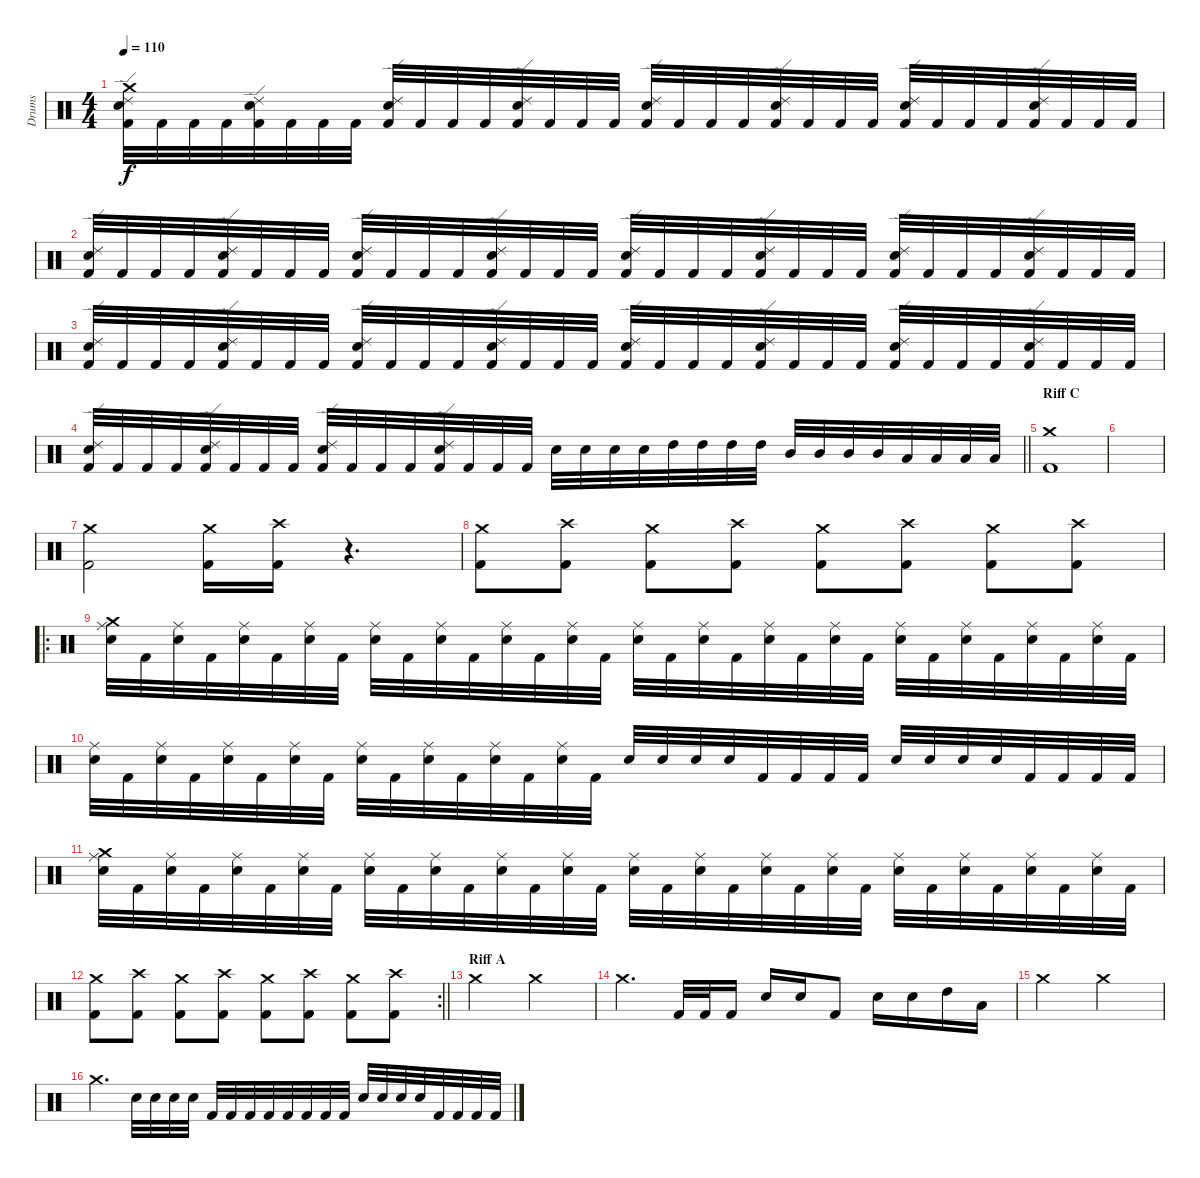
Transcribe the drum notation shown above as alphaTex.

\track ("Drums" "Drums") {instrument percussion}
\staff {score}
\articulation defaults
\ts (4 4)
\tempo 110
\clef neutral
\ks c
("Crash medium (hit)" "Ride (edge) 2" "Electric Snare (hit)" "Kick (hit) 2").32{dy f} "Kick (hit) 2".32 "Kick (hit) 2".32 "Kick (hit) 2".32 ("Ride (edge) 2" "Electric Snare (hit)" "Kick (hit) 2").32 "Kick (hit) 2".32 "Kick (hit) 2".32 "Kick (hit) 2".32 ("Ride (edge) 2" "Electric Snare (hit)" "Kick (hit) 2").32 "Kick (hit) 2".32 "Kick (hit) 2".32 "Kick (hit) 2".32 ("Ride (edge) 2" "Electric Snare (hit)" "Kick (hit) 2").32 "Kick (hit) 2".32 "Kick (hit) 2".32 "Kick (hit) 2".32 ("Ride (edge) 2" "Electric Snare (hit)" "Kick (hit) 2").32 "Kick (hit) 2".32 "Kick (hit) 2".32 "Kick (hit) 2".32 ("Ride (edge) 2" "Electric Snare (hit)" "Kick (hit) 2").32 "Kick (hit) 2".32 "Kick (hit) 2".32 "Kick (hit) 2".32 ("Ride (edge) 2" "Electric Snare (hit)" "Kick (hit) 2").32 "Kick (hit) 2".32 "Kick (hit) 2".32 "Kick (hit) 2".32 ("Ride (edge) 2" "Electric Snare (hit)" "Kick (hit) 2").32 "Kick (hit) 2".32 "Kick (hit) 2".32 "Kick (hit) 2".32 |
("Ride (edge) 2" "Electric Snare (hit)" "Kick (hit) 2").32 "Kick (hit) 2".32 "Kick (hit) 2".32 "Kick (hit) 2".32 ("Ride (edge) 2" "Electric Snare (hit)" "Kick (hit) 2").32 "Kick (hit) 2".32 "Kick (hit) 2".32 "Kick (hit) 2".32 ("Ride (edge) 2" "Electric Snare (hit)" "Kick (hit) 2").32 "Kick (hit) 2".32 "Kick (hit) 2".32 "Kick (hit) 2".32 ("Ride (edge) 2" "Electric Snare (hit)" "Kick (hit) 2").32 "Kick (hit) 2".32 "Kick (hit) 2".32 "Kick (hit) 2".32 ("Ride (edge) 2" "Electric Snare (hit)" "Kick (hit) 2").32 "Kick (hit) 2".32 "Kick (hit) 2".32 "Kick (hit) 2".32 ("Ride (edge) 2" "Electric Snare (hit)" "Kick (hit) 2").32 "Kick (hit) 2".32 "Kick (hit) 2".32 "Kick (hit) 2".32 ("Ride (edge) 2" "Electric Snare (hit)" "Kick (hit) 2").32 "Kick (hit) 2".32 "Kick (hit) 2".32 "Kick (hit) 2".32 ("Ride (edge) 2" "Electric Snare (hit)" "Kick (hit) 2").32 "Kick (hit) 2".32 "Kick (hit) 2".32 "Kick (hit) 2".32 |
("Ride (edge) 2" "Electric Snare (hit)" "Kick (hit) 2").32 "Kick (hit) 2".32 "Kick (hit) 2".32 "Kick (hit) 2".32 ("Ride (edge) 2" "Electric Snare (hit)" "Kick (hit) 2").32 "Kick (hit) 2".32 "Kick (hit) 2".32 "Kick (hit) 2".32 ("Ride (edge) 2" "Electric Snare (hit)" "Kick (hit) 2").32 "Kick (hit) 2".32 "Kick (hit) 2".32 "Kick (hit) 2".32 ("Ride (edge) 2" "Electric Snare (hit)" "Kick (hit) 2").32 "Kick (hit) 2".32 "Kick (hit) 2".32 "Kick (hit) 2".32 ("Ride (edge) 2" "Electric Snare (hit)" "Kick (hit) 2").32 "Kick (hit) 2".32 "Kick (hit) 2".32 "Kick (hit) 2".32 ("Ride (edge) 2" "Electric Snare (hit)" "Kick (hit) 2").32 "Kick (hit) 2".32 "Kick (hit) 2".32 "Kick (hit) 2".32 ("Ride (edge) 2" "Electric Snare (hit)" "Kick (hit) 2").32 "Kick (hit) 2".32 "Kick (hit) 2".32 "Kick (hit) 2".32 ("Ride (edge) 2" "Electric Snare (hit)" "Kick (hit) 2").32 "Kick (hit) 2".32 "Kick (hit) 2".32 "Kick (hit) 2".32 |
\barLineRight lightlight
("Ride (edge) 2" "Electric Snare (hit)" "Kick (hit) 2").32 "Kick (hit) 2".32 "Kick (hit) 2".32 "Kick (hit) 2".32 ("Ride (edge) 2" "Electric Snare (hit)" "Kick (hit) 2").32 "Kick (hit) 2".32 "Kick (hit) 2".32 "Kick (hit) 2".32 ("Ride (edge) 2" "Electric Snare (hit)" "Kick (hit) 2").32 "Kick (hit) 2".32 "Kick (hit) 2".32 "Kick (hit) 2".32 ("Ride (edge) 2" "Electric Snare (hit)" "Kick (hit) 2").32 "Kick (hit) 2".32 "Kick (hit) 2".32 "Kick (hit) 2".32 "Electric Snare (hit)".32 "Electric Snare (hit)".32 "Electric Snare (hit)".32 "Electric Snare (hit)".32 "High Tom (hit)".32 "High Tom (hit)".32 "High Tom (hit)".32 "High Tom (hit)".32 "Mid Tom (hit)".32 "Mid Tom (hit)".32 "Mid Tom (hit)".32 "Mid Tom (hit)".32 "Low Tom (hit)".32 "Low Tom (hit)".32 "Low Tom (hit)".32 "Low Tom (hit)".32 |
\section ("" "Riff C")
("Crash medium (hit)" "Kick (hit) 2").1 |
|
("Crash medium (hit)" "Kick (hit) 2").2 ("Crash medium (hit)" "Kick (hit) 2").16 ("Crash high (hit)" "Kick (hit) 2").16 r.4{d} |
("Crash medium (hit)" "Kick (hit) 2").8 ("Crash high (hit)" "Kick (hit) 2").8 ("Crash medium (hit)" "Kick (hit) 2").8 ("Crash high (hit)" "Kick (hit) 2").8 ("Crash medium (hit)" "Kick (hit) 2").8 ("Crash high (hit)" "Kick (hit) 2").8 ("Crash medium (hit)" "Kick (hit) 2").8 ("Crash high (hit)" "Kick (hit) 2").8 |
\ro
("Crash medium (hit)" "Ride (middle)" "Electric Snare (hit)").32 "Kick (hit) 2".32 ("Ride (middle)" "Electric Snare (hit)").32 "Kick (hit) 2".32 ("Ride (middle)" "Electric Snare (hit)").32 "Kick (hit) 2".32 ("Ride (middle)" "Electric Snare (hit)").32 "Kick (hit) 2".32 ("Ride (middle)" "Electric Snare (hit)").32 "Kick (hit) 2".32 ("Ride (middle)" "Electric Snare (hit)").32 "Kick (hit) 2".32 ("Ride (middle)" "Electric Snare (hit)").32 "Kick (hit) 2".32 ("Ride (middle)" "Electric Snare (hit)").32 "Kick (hit) 2".32 ("Ride (middle)" "Electric Snare (hit)").32 "Kick (hit) 2".32 ("Ride (middle)" "Electric Snare (hit)").32 "Kick (hit) 2".32 ("Ride (middle)" "Electric Snare (hit)").32 "Kick (hit) 2".32 ("Ride (middle)" "Electric Snare (hit)").32 "Kick (hit) 2".32 ("Ride (middle)" "Electric Snare (hit)").32 "Kick (hit) 2".32 ("Ride (middle)" "Electric Snare (hit)").32 "Kick (hit) 2".32 ("Ride (middle)" "Electric Snare (hit)").32 "Kick (hit) 2".32 ("Ride (middle)" "Electric Snare (hit)").32 "Kick (hit) 2".32 |
("Ride (middle)" "Electric Snare (hit)").32 "Kick (hit) 2".32 ("Ride (middle)" "Electric Snare (hit)").32 "Kick (hit) 2".32 ("Ride (middle)" "Electric Snare (hit)").32 "Kick (hit) 2".32 ("Ride (middle)" "Electric Snare (hit)").32 "Kick (hit) 2".32 ("Ride (middle)" "Electric Snare (hit)").32 "Kick (hit) 2".32 ("Ride (middle)" "Electric Snare (hit)").32 "Kick (hit) 2".32 ("Ride (middle)" "Electric Snare (hit)").32 "Kick (hit) 2".32 ("Ride (middle)" "Electric Snare (hit)").32 "Kick (hit) 2".32 "Electric Snare (hit)".32 "Electric Snare (hit)".32 "Electric Snare (hit)".32 "Electric Snare (hit)".32 "Kick (hit) 2".32 "Kick (hit) 2".32 "Kick (hit) 2".32 "Kick (hit) 2".32 "Electric Snare (hit)".32 "Electric Snare (hit)".32 "Electric Snare (hit)".32 "Electric Snare (hit)".32 "Kick (hit) 2".32 "Kick (hit) 2".32 "Kick (hit) 2".32 "Kick (hit) 2".32 |
("Crash medium (hit)" "Ride (middle)" "Electric Snare (hit)").32 "Kick (hit) 2".32 ("Ride (middle)" "Electric Snare (hit)").32 "Kick (hit) 2".32 ("Ride (middle)" "Electric Snare (hit)").32 "Kick (hit) 2".32 ("Ride (middle)" "Electric Snare (hit)").32 "Kick (hit) 2".32 ("Ride (middle)" "Electric Snare (hit)").32 "Kick (hit) 2".32 ("Ride (middle)" "Electric Snare (hit)").32 "Kick (hit) 2".32 ("Ride (middle)" "Electric Snare (hit)").32 "Kick (hit) 2".32 ("Ride (middle)" "Electric Snare (hit)").32 "Kick (hit) 2".32 ("Ride (middle)" "Electric Snare (hit)").32 "Kick (hit) 2".32 ("Ride (middle)" "Electric Snare (hit)").32 "Kick (hit) 2".32 ("Ride (middle)" "Electric Snare (hit)").32 "Kick (hit) 2".32 ("Ride (middle)" "Electric Snare (hit)").32 "Kick (hit) 2".32 ("Ride (middle)" "Electric Snare (hit)").32 "Kick (hit) 2".32 ("Ride (middle)" "Electric Snare (hit)").32 "Kick (hit) 2".32 ("Ride (middle)" "Electric Snare (hit)").32 "Kick (hit) 2".32 ("Ride (middle)" "Electric Snare (hit)").32 "Kick (hit) 2".32 |
\rc 2
\barLineRight lightlight
("Crash medium (hit)" "Kick (hit) 2").8 ("Crash high (hit)" "Kick (hit) 2").8 ("Crash medium (hit)" "Kick (hit) 2").8 ("Crash high (hit)" "Kick (hit) 2").8 ("Crash medium (hit)" "Kick (hit) 2").8 ("Crash high (hit)" "Kick (hit) 2").8 ("Crash medium (hit)" "Kick (hit) 2").8 ("Crash high (hit)" "Kick (hit) 2").8 |
\section ("" "Riff A")
"Crash medium (hit)".2 "Crash medium (hit)".2 |
"Crash medium (hit)".4{d} "Kick (hit) 2".32 "Kick (hit) 2".32 "Kick (hit) 2".16 "Electric Snare (hit)".16 "Electric Snare (hit)".16 "Kick (hit) 2".8 "Electric Snare (hit)".16 "Electric Snare (hit)".16 "High Tom (hit)".16 "Low Tom (hit)".16 |
"Crash medium (hit)".2 "Crash medium (hit)".2 |
"Crash medium (hit)".4{d} "Electric Snare (hit)".32 "Electric Snare (hit)".32 "Electric Snare (hit)".32 "Electric Snare (hit)".32 "Kick (hit) 2".32 "Kick (hit) 2".32 "Kick (hit) 2".32 "Kick (hit) 2".32 "Kick (hit) 2".32 "Kick (hit) 2".32 "Kick (hit) 2".32 "Kick (hit) 2".32 "Electric Snare (hit)".32 "Electric Snare (hit)".32 "Electric Snare (hit)".32 "Electric Snare (hit)".32 "Kick (hit) 2".32 "Kick (hit) 2".32 "Kick (hit) 2".32 "Kick (hit) 2".32
